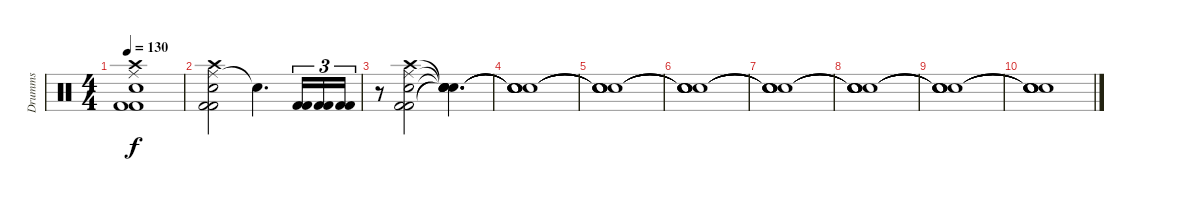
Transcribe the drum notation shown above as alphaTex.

\track ("Drumms" "Drumms") {instrument percussion}
\staff {score}
\articulation defaults
\ts (4 4)
\tempo 130
\clef neutral
\ks c
("Ride (middle)" "Snare (hit) 2" "Kick (hit) 2" "Kick (hit) 2" "Crash high (hit)").1{dy f} |
("Ride (middle)" "Snare (hit) 2" "Kick (hit) 2" "Kick (hit) 2" "Crash high (hit)").2 "Snare (hit)"{t}.4{d} ("Kick (hit) 2" "Kick (hit) 2").16{tu (3 2)} ("Kick (hit) 2" "Kick (hit) 2").16{tu (3 2)} ("Kick (hit) 2" "Kick (hit) 2").16{tu (3 2)} |
r.8 ("Ride (middle)" "Snare (hit) 2" "Kick (hit) 2" "Kick (hit) 2" "Crash high (hit)").2 ("Snare (hit)"{t} "Snare (hit)"{t} "Snare (hit)"{t} "Snare (hit)"{t} "Snare (hit)"{t}).4{d} |
("Snare (hit)"{t} "Snare (hit)"{t} "Snare (hit)"{t} "Snare (hit)"{t} "Snare (hit)"{t}).1{volume 0} |
("Snare (hit)"{t} "Snare (hit)"{t} "Snare (hit)"{t} "Snare (hit)"{t} "Snare (hit)"{t}).1 |
("Snare (hit)"{t} "Snare (hit)"{t} "Snare (hit)"{t} "Snare (hit)"{t} "Snare (hit)"{t}).1 |
("Snare (hit)"{t} "Snare (hit)"{t} "Snare (hit)"{t} "Snare (hit)"{t} "Snare (hit)"{t}).1 |
("Snare (hit)"{t} "Snare (hit)"{t} "Snare (hit)"{t} "Snare (hit)"{t} "Snare (hit)"{t}).1 |
("Snare (hit)"{t} "Snare (hit)"{t} "Snare (hit)"{t} "Snare (hit)"{t} "Snare (hit)"{t}).1 |
("Snare (hit)"{t} "Snare (hit)"{t} "Snare (hit)"{t} "Snare (hit)"{t} "Snare (hit)"{t}).1
